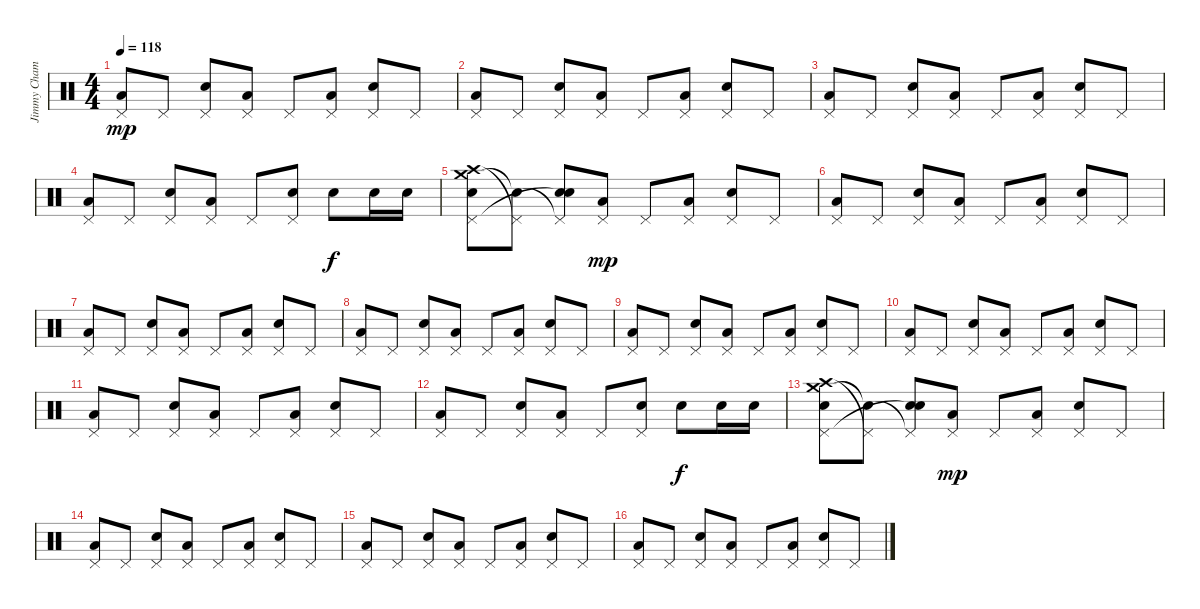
\track ("Jimmy Chamberlin" "Jimmy Cham") {instrument percussion}
\staff {score}
\articulation defaults
\ts (4 4)
\tempo 118
\clef neutral
\ks c
("Low Floor Tom (hit)" "Pedal Hi-Hat (hit)").8{dy mp} "Pedal Hi-Hat (hit)".8 ("Snare (hit) 2" "Pedal Hi-Hat (hit)").8 ("Low Floor Tom (hit)" "Pedal Hi-Hat (hit)").8 "Pedal Hi-Hat (hit)".8 ("Low Floor Tom (hit)" "Pedal Hi-Hat (hit)").8 ("Snare (hit) 2" "Pedal Hi-Hat (hit)").8 "Pedal Hi-Hat (hit)".8 |
("Low Floor Tom (hit)" "Pedal Hi-Hat (hit)").8 "Pedal Hi-Hat (hit)".8 ("Snare (hit) 2" "Pedal Hi-Hat (hit)").8 ("Low Floor Tom (hit)" "Pedal Hi-Hat (hit)").8 "Pedal Hi-Hat (hit)".8 ("Low Floor Tom (hit)" "Pedal Hi-Hat (hit)").8 ("Snare (hit) 2" "Pedal Hi-Hat (hit)").8 "Pedal Hi-Hat (hit)".8 |
("Low Floor Tom (hit)" "Pedal Hi-Hat (hit)").8 "Pedal Hi-Hat (hit)".8 ("Snare (hit) 2" "Pedal Hi-Hat (hit)").8 ("Low Floor Tom (hit)" "Pedal Hi-Hat (hit)").8 "Pedal Hi-Hat (hit)".8 ("Low Floor Tom (hit)" "Pedal Hi-Hat (hit)").8 ("Snare (hit) 2" "Pedal Hi-Hat (hit)").8 "Pedal Hi-Hat (hit)".8 |
("Low Floor Tom (hit)" "Pedal Hi-Hat (hit)").8 "Pedal Hi-Hat (hit)".8 ("Snare (hit) 2" "Pedal Hi-Hat (hit)").8 ("Low Floor Tom (hit)" "Pedal Hi-Hat (hit)").8 "Pedal Hi-Hat (hit)".8 ("Snare (hit) 2" "Pedal Hi-Hat (hit)").8 "Snare (hit) 2".8{dy f} "Snare (hit) 2".16 "Snare (hit) 2".16 |
("Crash high (hit)" "Crash medium (hit)" "Pedal Hi-Hat (hit)" "Snare (hit)").8 ("Pedal Hi-Hat (hit)"{t} "Snare (hit)"{t}).8 ("Snare (hit) 2" "Pedal Hi-Hat (hit)"{t} "Snare (hit)"{t}).8 ("Low Floor Tom (hit)" "Pedal Hi-Hat (hit)").8{dy mp} "Pedal Hi-Hat (hit)".8 ("Low Floor Tom (hit)" "Pedal Hi-Hat (hit)").8 ("Snare (hit) 2" "Pedal Hi-Hat (hit)").8 "Pedal Hi-Hat (hit)".8 |
("Low Floor Tom (hit)" "Pedal Hi-Hat (hit)").8 "Pedal Hi-Hat (hit)".8 ("Snare (hit) 2" "Pedal Hi-Hat (hit)").8 ("Low Floor Tom (hit)" "Pedal Hi-Hat (hit)").8 "Pedal Hi-Hat (hit)".8 ("Low Floor Tom (hit)" "Pedal Hi-Hat (hit)").8 ("Snare (hit) 2" "Pedal Hi-Hat (hit)").8 "Pedal Hi-Hat (hit)".8 |
("Low Floor Tom (hit)" "Pedal Hi-Hat (hit)").8 "Pedal Hi-Hat (hit)".8 ("Snare (hit) 2" "Pedal Hi-Hat (hit)").8 ("Low Floor Tom (hit)" "Pedal Hi-Hat (hit)").8 "Pedal Hi-Hat (hit)".8 ("Low Floor Tom (hit)" "Pedal Hi-Hat (hit)").8 ("Snare (hit) 2" "Pedal Hi-Hat (hit)").8 "Pedal Hi-Hat (hit)".8 |
("Low Floor Tom (hit)" "Pedal Hi-Hat (hit)").8 "Pedal Hi-Hat (hit)".8 ("Snare (hit) 2" "Pedal Hi-Hat (hit)").8 ("Low Floor Tom (hit)" "Pedal Hi-Hat (hit)").8 "Pedal Hi-Hat (hit)".8 ("Low Floor Tom (hit)" "Pedal Hi-Hat (hit)").8 ("Snare (hit) 2" "Pedal Hi-Hat (hit)").8 "Pedal Hi-Hat (hit)".8 |
("Low Floor Tom (hit)" "Pedal Hi-Hat (hit)").8 "Pedal Hi-Hat (hit)".8 ("Snare (hit) 2" "Pedal Hi-Hat (hit)").8 ("Low Floor Tom (hit)" "Pedal Hi-Hat (hit)").8 "Pedal Hi-Hat (hit)".8 ("Low Floor Tom (hit)" "Pedal Hi-Hat (hit)").8 ("Snare (hit) 2" "Pedal Hi-Hat (hit)").8 "Pedal Hi-Hat (hit)".8 |
("Low Floor Tom (hit)" "Pedal Hi-Hat (hit)").8 "Pedal Hi-Hat (hit)".8 ("Snare (hit) 2" "Pedal Hi-Hat (hit)").8 ("Low Floor Tom (hit)" "Pedal Hi-Hat (hit)").8 "Pedal Hi-Hat (hit)".8 ("Low Floor Tom (hit)" "Pedal Hi-Hat (hit)").8 ("Snare (hit) 2" "Pedal Hi-Hat (hit)").8 "Pedal Hi-Hat (hit)".8 |
("Low Floor Tom (hit)" "Pedal Hi-Hat (hit)").8 "Pedal Hi-Hat (hit)".8 ("Snare (hit) 2" "Pedal Hi-Hat (hit)").8 ("Low Floor Tom (hit)" "Pedal Hi-Hat (hit)").8 "Pedal Hi-Hat (hit)".8 ("Low Floor Tom (hit)" "Pedal Hi-Hat (hit)").8 ("Snare (hit) 2" "Pedal Hi-Hat (hit)").8 "Pedal Hi-Hat (hit)".8 |
("Low Floor Tom (hit)" "Pedal Hi-Hat (hit)").8 "Pedal Hi-Hat (hit)".8 ("Snare (hit) 2" "Pedal Hi-Hat (hit)").8 ("Low Floor Tom (hit)" "Pedal Hi-Hat (hit)").8 "Pedal Hi-Hat (hit)".8 ("Snare (hit) 2" "Pedal Hi-Hat (hit)").8 "Snare (hit) 2".8{dy f} "Snare (hit) 2".16 "Snare (hit) 2".16 |
("Crash high (hit)" "Crash medium (hit)" "Pedal Hi-Hat (hit)" "Snare (hit)").8 ("Pedal Hi-Hat (hit)"{t} "Snare (hit)"{t}).8 ("Snare (hit) 2" "Pedal Hi-Hat (hit)"{t} "Snare (hit)"{t}).8 ("Low Floor Tom (hit)" "Pedal Hi-Hat (hit)").8{dy mp} "Pedal Hi-Hat (hit)".8 ("Low Floor Tom (hit)" "Pedal Hi-Hat (hit)").8 ("Snare (hit) 2" "Pedal Hi-Hat (hit)").8 "Pedal Hi-Hat (hit)".8 |
("Low Floor Tom (hit)" "Pedal Hi-Hat (hit)").8 "Pedal Hi-Hat (hit)".8 ("Snare (hit) 2" "Pedal Hi-Hat (hit)").8 ("Low Floor Tom (hit)" "Pedal Hi-Hat (hit)").8 "Pedal Hi-Hat (hit)".8 ("Low Floor Tom (hit)" "Pedal Hi-Hat (hit)").8 ("Snare (hit) 2" "Pedal Hi-Hat (hit)").8 "Pedal Hi-Hat (hit)".8 |
("Low Floor Tom (hit)" "Pedal Hi-Hat (hit)").8 "Pedal Hi-Hat (hit)".8 ("Snare (hit) 2" "Pedal Hi-Hat (hit)").8 ("Low Floor Tom (hit)" "Pedal Hi-Hat (hit)").8 "Pedal Hi-Hat (hit)".8 ("Low Floor Tom (hit)" "Pedal Hi-Hat (hit)").8 ("Snare (hit) 2" "Pedal Hi-Hat (hit)").8 "Pedal Hi-Hat (hit)".8 |
("Low Floor Tom (hit)" "Pedal Hi-Hat (hit)").8 "Pedal Hi-Hat (hit)".8 ("Snare (hit) 2" "Pedal Hi-Hat (hit)").8 ("Low Floor Tom (hit)" "Pedal Hi-Hat (hit)").8 "Pedal Hi-Hat (hit)".8 ("Low Floor Tom (hit)" "Pedal Hi-Hat (hit)").8 ("Snare (hit) 2" "Pedal Hi-Hat (hit)").8 "Pedal Hi-Hat (hit)".8
